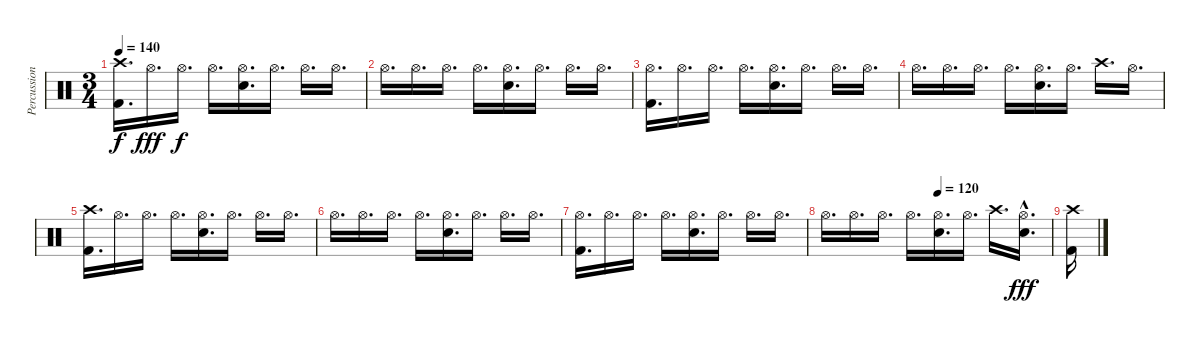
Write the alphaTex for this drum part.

\track ("Percussion" "Percussion") {instrument percussion}
\staff {score}
\articulation defaults
\ts (3 4)
\tempo 140
\clef neutral
\ks c
("Crash high (hit)" "Kick (hit) 2").16{d dy f} "Hi-Hat (open)".16{d dy fff} "Hi-Hat (open)".16{d dy f} "Hi-Hat (open)".16{d} ("Hi-Hat (open)" "Electric Snare (hit)").16{d} "Hi-Hat (open)".16{d} "Hi-Hat (open)".16{d} "Hi-Hat (open)".16{d} |
"Hi-Hat (open)".16{d} "Hi-Hat (open)".16{d} "Hi-Hat (open)".16{d} "Hi-Hat (open)".16{d} ("Hi-Hat (open)" "Electric Snare (hit)").16{d} "Hi-Hat (open)".16{d} "Hi-Hat (open)".16{d} "Hi-Hat (open)".16{d} |
("Hi-Hat (open)" "Kick (hit) 2").16{d} "Hi-Hat (open)".16{d} "Hi-Hat (open)".16{d} "Hi-Hat (open)".16{d} ("Hi-Hat (open)" "Electric Snare (hit)").16{d} "Hi-Hat (open)".16{d} "Hi-Hat (open)".16{d} "Hi-Hat (open)".16{d} |
"Hi-Hat (open)".16{d} "Hi-Hat (open)".16{d} "Hi-Hat (open)".16{d} "Hi-Hat (open)".16{d} ("Hi-Hat (open)" "Electric Snare (hit)").16{d} "Hi-Hat (open)".16{d} "Crash high (hit)".16{d} "Hi-Hat (open)".16{d} |
("Crash high (hit)" "Kick (hit) 2").16{d} "Hi-Hat (open)".16{d} "Hi-Hat (open)".16{d} "Hi-Hat (open)".16{d} ("Hi-Hat (open)" "Electric Snare (hit)").16{d} "Hi-Hat (open)".16{d} "Hi-Hat (open)".16{d} "Hi-Hat (open)".16{d} |
"Hi-Hat (open)".16{d} "Hi-Hat (open)".16{d} "Hi-Hat (open)".16{d} "Hi-Hat (open)".16{d} ("Hi-Hat (open)" "Electric Snare (hit)").16{d} "Hi-Hat (open)".16{d} "Hi-Hat (open)".16{d} "Hi-Hat (open)".16{d} |
("Hi-Hat (open)" "Kick (hit) 2").16{d} "Hi-Hat (open)".16{d} "Hi-Hat (open)".16{d} "Hi-Hat (open)".16{d} ("Hi-Hat (open)" "Electric Snare (hit)").16{d} "Hi-Hat (open)".16{d} "Hi-Hat (open)".16{d} "Hi-Hat (open)".16{d} |
\tempo (120 0.5)
"Hi-Hat (open)".16{d} "Hi-Hat (open)".16{d} "Hi-Hat (open)".16{d} "Hi-Hat (open)".16{d} ("Hi-Hat (open)" "Electric Snare (hit)").16{d} "Hi-Hat (open)".16{d} "Crash high (hit)".16{d} ("Hi-Hat (open)" "Electric Snare (hit)"{hac}).16{d dy fff} |
("Crash high (hit)" "Kick (hit) 2").16
